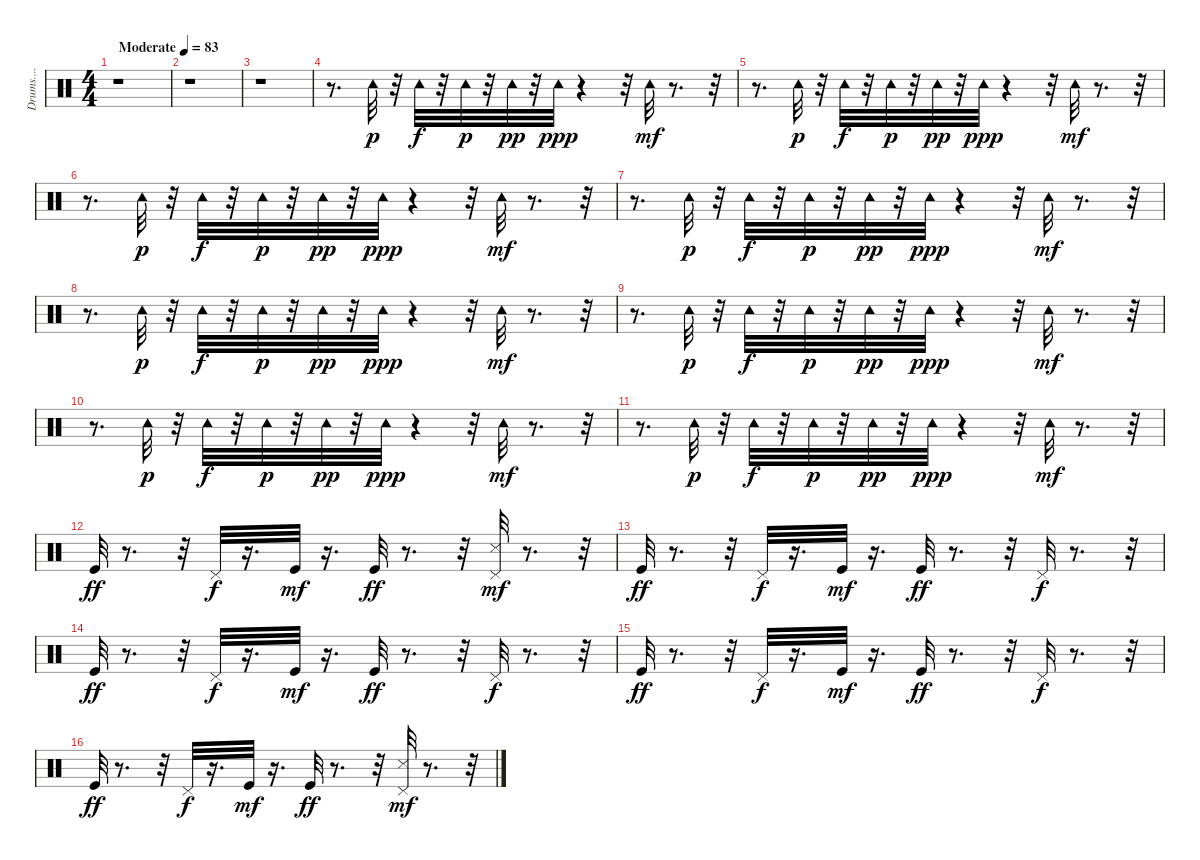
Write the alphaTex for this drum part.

\track ("Drums....           " "Drums.... ") {instrument percussion}
\staff {score}
\articulation defaults
\ts (4 4)
\tempo (83 "Moderate")
\clef neutral
\ks c
r.1{dy p} |
r.1 |
r.1 |
r.8{d} "Tambourine (hit)".32 r.32 "Tambourine (hit)".32{dy f} r.32 "Tambourine (hit)".32{dy p} r.32 "Tambourine (hit)".32{dy pp} r.32 "Tambourine (hit)".32{dy ppp} r.4 r.32 "Tambourine (hit)".32{dy mf} r.8{d} r.32 |
r.8{d} "Tambourine (hit)".32{dy p} r.32 "Tambourine (hit)".32{dy f} r.32 "Tambourine (hit)".32{dy p} r.32 "Tambourine (hit)".32{dy pp} r.32 "Tambourine (hit)".32{dy ppp} r.4 r.32 "Tambourine (hit)".32{dy mf} r.8{d} r.32 |
r.8{d} "Tambourine (hit)".32{dy p} r.32 "Tambourine (hit)".32{dy f} r.32 "Tambourine (hit)".32{dy p} r.32 "Tambourine (hit)".32{dy pp} r.32 "Tambourine (hit)".32{dy ppp} r.4 r.32 "Tambourine (hit)".32{dy mf} r.8{d} r.32 |
r.8{d} "Tambourine (hit)".32{dy p} r.32 "Tambourine (hit)".32{dy f} r.32 "Tambourine (hit)".32{dy p} r.32 "Tambourine (hit)".32{dy pp} r.32 "Tambourine (hit)".32{dy ppp} r.4 r.32 "Tambourine (hit)".32{dy mf} r.8{d} r.32 |
r.8{d} "Tambourine (hit)".32{dy p} r.32 "Tambourine (hit)".32{dy f} r.32 "Tambourine (hit)".32{dy p} r.32 "Tambourine (hit)".32{dy pp} r.32 "Tambourine (hit)".32{dy ppp} r.4 r.32 "Tambourine (hit)".32{dy mf} r.8{d} r.32 |
r.8{d} "Tambourine (hit)".32{dy p} r.32 "Tambourine (hit)".32{dy f} r.32 "Tambourine (hit)".32{dy p} r.32 "Tambourine (hit)".32{dy pp} r.32 "Tambourine (hit)".32{dy ppp} r.4 r.32 "Tambourine (hit)".32{dy mf} r.8{d} r.32 |
r.8{d} "Tambourine (hit)".32{dy p} r.32 "Tambourine (hit)".32{dy f} r.32 "Tambourine (hit)".32{dy p} r.32 "Tambourine (hit)".32{dy pp} r.32 "Tambourine (hit)".32{dy ppp} r.4 r.32 "Tambourine (hit)".32{dy mf} r.8{d} r.32 |
r.8{d} "Tambourine (hit)".32{dy p} r.32 "Tambourine (hit)".32{dy f} r.32 "Tambourine (hit)".32{dy p} r.32 "Tambourine (hit)".32{dy pp} r.32 "Tambourine (hit)".32{dy ppp} r.4 r.32 "Tambourine (hit)".32{dy mf} r.8{d} r.32 |
"Kick (hit)".32{dy ff} r.8{d} r.32 "Pedal Hi-Hat (hit)".32{dy f} r.16{d} "Kick (hit)".32{dy mf} r.16{d} "Kick (hit)".32{dy ff} r.8{d} r.32 ("Pedal Hi-Hat (hit)" "Snare (side stick) 3").32{dy mf} r.8{d} r.32 |
"Kick (hit)".32{dy ff} r.8{d} r.32 "Pedal Hi-Hat (hit)".32{dy f} r.16{d} "Kick (hit)".32{dy mf} r.16{d} "Kick (hit)".32{dy ff} r.8{d} r.32 "Pedal Hi-Hat (hit)".32{dy f} r.8{d} r.32 |
"Kick (hit)".32{dy ff} r.8{d} r.32 "Pedal Hi-Hat (hit)".32{dy f} r.16{d} "Kick (hit)".32{dy mf} r.16{d} "Kick (hit)".32{dy ff} r.8{d} r.32 "Pedal Hi-Hat (hit)".32{dy f} r.8{d} r.32 |
"Kick (hit)".32{dy ff} r.8{d} r.32 "Pedal Hi-Hat (hit)".32{dy f} r.16{d} "Kick (hit)".32{dy mf} r.16{d} "Kick (hit)".32{dy ff} r.8{d} r.32 "Pedal Hi-Hat (hit)".32{dy f} r.8{d} r.32 |
"Kick (hit)".32{dy ff} r.8{d} r.32 "Pedal Hi-Hat (hit)".32{dy f} r.16{d} "Kick (hit)".32{dy mf} r.16{d} "Kick (hit)".32{dy ff} r.8{d} r.32 ("Pedal Hi-Hat (hit)" "Snare (side stick) 3").32{dy mf} r.8{d} r.32
